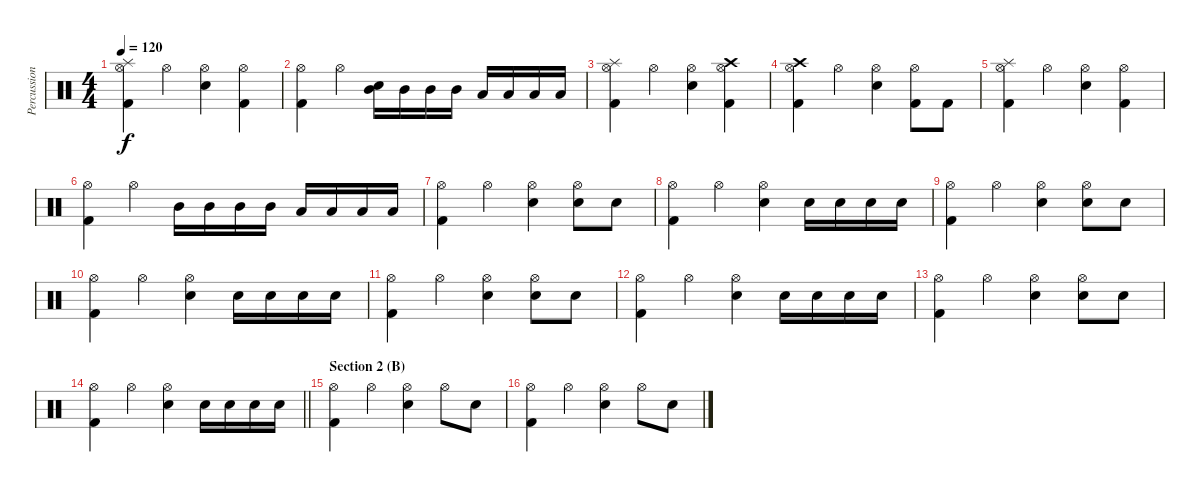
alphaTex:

\track ("Percussion" "Percussion") {instrument percussion}
\staff {score}
\articulation defaults
\ts (4 4)
\tempo 120
\clef neutral
\ks c
("Splash (hit)" "Hi-Hat (open)" "Kick (hit) 2").4{dy f} "Hi-Hat (open)".4 ("Hi-Hat (open)" "Snare (hit) 2").4 ("Hi-Hat (open)" "Kick (hit) 2").4 |
("Hi-Hat (open)" "Kick (hit) 2").4 "Hi-Hat (open)".4 ("Mid Tom (hit)" "Snare (hit) 2").16 "Mid Tom (hit)".16 "Mid Tom (hit)".16 "Mid Tom (hit)".16 "Low Tom (hit)".16 "Low Tom (hit)".16 "Low Tom (hit)".16 "Low Tom (hit)".16 |
("Splash (hit)" "Hi-Hat (open)" "Kick (hit) 2").4 "Hi-Hat (open)".4 ("Hi-Hat (open)" "Snare (hit) 2").4 ("Hi-Hat (open)" "Crash high (hit)" "Kick (hit) 2").4 |
("Hi-Hat (open)" "Crash high (hit)" "Kick (hit) 2").4 "Hi-Hat (open)".4 ("Hi-Hat (open)" "Snare (hit) 2").4 ("Hi-Hat (open)" "Kick (hit) 2").8 "Kick (hit) 2".8 |
("Splash (hit)" "Hi-Hat (open)" "Kick (hit) 2").4 "Hi-Hat (open)".4 ("Hi-Hat (open)" "Snare (hit) 2").4 ("Hi-Hat (open)" "Kick (hit) 2").4 |
("Hi-Hat (open)" "Kick (hit) 2").4 "Hi-Hat (open)".4 "Mid Tom (hit)".16 "Mid Tom (hit)".16 "Mid Tom (hit)".16 "Mid Tom (hit)".16 "Low Tom (hit)".16 "Low Tom (hit)".16 "Low Tom (hit)".16 "Low Tom (hit)".16 |
("Hi-Hat (open)" "Kick (hit) 2").4 "Hi-Hat (open)".4 ("Hi-Hat (open)" "Snare (hit) 2").4 ("Hi-Hat (open)" "Snare (hit) 2").8 "Snare (hit) 2".8 |
("Hi-Hat (open)" "Kick (hit) 2").4 "Hi-Hat (open)".4 ("Hi-Hat (open)" "Snare (hit) 2").4 "Snare (hit) 2".16 "Snare (hit) 2".16 "Snare (hit) 2".16 "Snare (hit) 2".16 |
("Hi-Hat (open)" "Kick (hit) 2").4 "Hi-Hat (open)".4 ("Hi-Hat (open)" "Snare (hit) 2").4 ("Hi-Hat (open)" "Snare (hit) 2").8 "Snare (hit) 2".8 |
("Hi-Hat (open)" "Kick (hit) 2").4 "Hi-Hat (open)".4 ("Hi-Hat (open)" "Snare (hit) 2").4 "Snare (hit) 2".16 "Snare (hit) 2".16 "Snare (hit) 2".16 "Snare (hit) 2".16 |
("Hi-Hat (open)" "Kick (hit) 2").4 "Hi-Hat (open)".4 ("Hi-Hat (open)" "Snare (hit) 2").4 ("Hi-Hat (open)" "Snare (hit) 2").8 "Snare (hit) 2".8 |
("Hi-Hat (open)" "Kick (hit) 2").4 "Hi-Hat (open)".4 ("Hi-Hat (open)" "Snare (hit) 2").4 "Snare (hit) 2".16 "Snare (hit) 2".16 "Snare (hit) 2".16 "Snare (hit) 2".16 |
("Hi-Hat (open)" "Kick (hit) 2").4 "Hi-Hat (open)".4 ("Hi-Hat (open)" "Snare (hit) 2").4 ("Hi-Hat (open)" "Snare (hit) 2").8 "Snare (hit) 2".8 |
\barLineRight lightlight
("Hi-Hat (open)" "Kick (hit) 2").4 "Hi-Hat (open)".4 ("Hi-Hat (open)" "Snare (hit) 2").4 "Snare (hit) 2".16 "Snare (hit) 2".16 "Snare (hit) 2".16 "Snare (hit) 2".16 |
\section ("" "Section 2 (B)")
("Hi-Hat (open)" "Kick (hit) 2").4 "Hi-Hat (open)".4 ("Hi-Hat (open)" "Snare (hit) 2").4 "Hi-Hat (open)".8 "Snare (hit) 2".8 |
("Hi-Hat (open)" "Kick (hit) 2").4 "Hi-Hat (open)".4 ("Hi-Hat (open)" "Snare (hit) 2").4 "Hi-Hat (open)".8 "Snare (hit) 2".8
